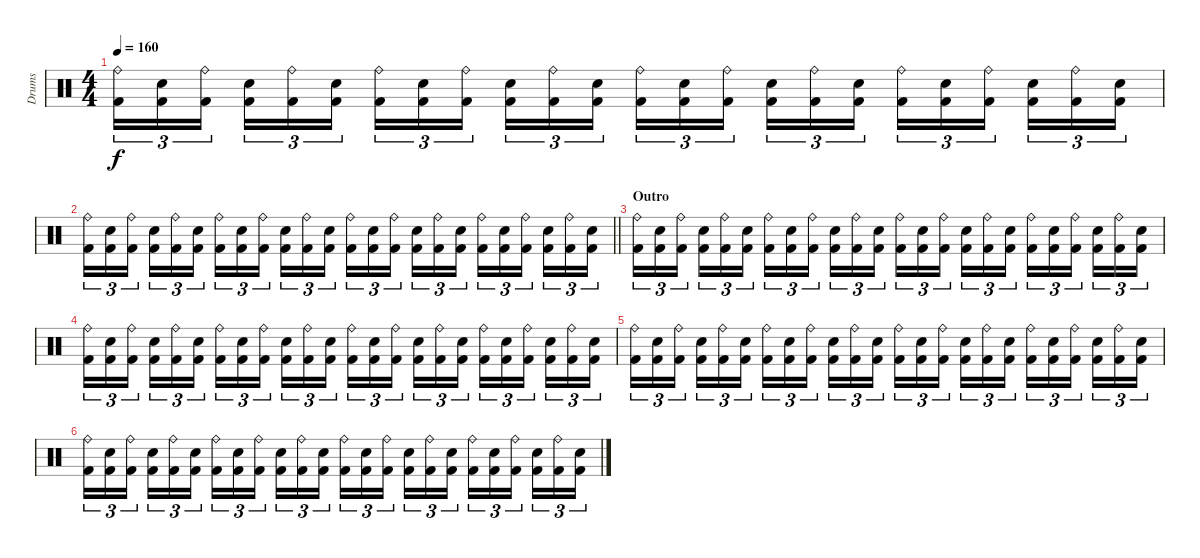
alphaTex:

\track ("Drums" "Drums") {instrument percussion}
\staff {score}
\articulation defaults
\ts (4 4)
\tempo 160
\clef neutral
\ks c
("Ride (bell)" "Kick (hit) 2").16{tu (3 2) dy f} ("Electric Snare (hit)" "Kick (hit) 2").16{tu (3 2)} ("Ride (bell)" "Kick (hit) 2").16{tu (3 2) beam splitsecondary} ("Electric Snare (hit)" "Kick (hit) 2").16{tu (3 2)} ("Ride (bell)" "Kick (hit) 2").16{tu (3 2)} ("Electric Snare (hit)" "Kick (hit) 2").16{tu (3 2)} ("Ride (bell)" "Kick (hit) 2").16{tu (3 2)} ("Electric Snare (hit)" "Kick (hit) 2").16{tu (3 2)} ("Ride (bell)" "Kick (hit) 2").16{tu (3 2) beam splitsecondary} ("Electric Snare (hit)" "Kick (hit) 2").16{tu (3 2)} ("Ride (bell)" "Kick (hit) 2").16{tu (3 2)} ("Electric Snare (hit)" "Kick (hit) 2").16{tu (3 2)} ("Ride (bell)" "Kick (hit) 2").16{tu (3 2)} ("Electric Snare (hit)" "Kick (hit) 2").16{tu (3 2)} ("Ride (bell)" "Kick (hit) 2").16{tu (3 2) beam splitsecondary} ("Electric Snare (hit)" "Kick (hit) 2").16{tu (3 2)} ("Ride (bell)" "Kick (hit) 2").16{tu (3 2)} ("Electric Snare (hit)" "Kick (hit) 2").16{tu (3 2)} ("Ride (bell)" "Kick (hit) 2").16{tu (3 2)} ("Electric Snare (hit)" "Kick (hit) 2").16{tu (3 2)} ("Ride (bell)" "Kick (hit) 2").16{tu (3 2) beam splitsecondary} ("Electric Snare (hit)" "Kick (hit) 2").16{tu (3 2)} ("Ride (bell)" "Kick (hit) 2").16{tu (3 2)} ("Electric Snare (hit)" "Kick (hit) 2").16{tu (3 2)} |
\barLineRight lightlight
("Ride (bell)" "Kick (hit) 2").16{tu (3 2)} ("Electric Snare (hit)" "Kick (hit) 2").16{tu (3 2)} ("Ride (bell)" "Kick (hit) 2").16{tu (3 2) beam splitsecondary} ("Electric Snare (hit)" "Kick (hit) 2").16{tu (3 2)} ("Ride (bell)" "Kick (hit) 2").16{tu (3 2)} ("Electric Snare (hit)" "Kick (hit) 2").16{tu (3 2)} ("Ride (bell)" "Kick (hit) 2").16{tu (3 2)} ("Electric Snare (hit)" "Kick (hit) 2").16{tu (3 2)} ("Ride (bell)" "Kick (hit) 2").16{tu (3 2) beam splitsecondary} ("Electric Snare (hit)" "Kick (hit) 2").16{tu (3 2)} ("Ride (bell)" "Kick (hit) 2").16{tu (3 2)} ("Electric Snare (hit)" "Kick (hit) 2").16{tu (3 2)} ("Ride (bell)" "Kick (hit) 2").16{tu (3 2)} ("Electric Snare (hit)" "Kick (hit) 2").16{tu (3 2)} ("Ride (bell)" "Kick (hit) 2").16{tu (3 2) beam splitsecondary} ("Electric Snare (hit)" "Kick (hit) 2").16{tu (3 2)} ("Ride (bell)" "Kick (hit) 2").16{tu (3 2)} ("Electric Snare (hit)" "Kick (hit) 2").16{tu (3 2)} ("Ride (bell)" "Kick (hit) 2").16{tu (3 2)} ("Electric Snare (hit)" "Kick (hit) 2").16{tu (3 2)} ("Ride (bell)" "Kick (hit) 2").16{tu (3 2) beam splitsecondary} ("Electric Snare (hit)" "Kick (hit) 2").16{tu (3 2)} ("Ride (bell)" "Kick (hit) 2").16{tu (3 2)} ("Electric Snare (hit)" "Kick (hit) 2").16{tu (3 2)} |
\section ("" "Outro")
("Ride (bell)" "Kick (hit) 2").16{tu (3 2)} ("Electric Snare (hit)" "Kick (hit) 2").16{tu (3 2)} ("Ride (bell)" "Kick (hit) 2").16{tu (3 2) beam splitsecondary} ("Electric Snare (hit)" "Kick (hit) 2").16{tu (3 2)} ("Ride (bell)" "Kick (hit) 2").16{tu (3 2)} ("Electric Snare (hit)" "Kick (hit) 2").16{tu (3 2)} ("Ride (bell)" "Kick (hit) 2").16{tu (3 2)} ("Electric Snare (hit)" "Kick (hit) 2").16{tu (3 2)} ("Ride (bell)" "Kick (hit) 2").16{tu (3 2) beam splitsecondary} ("Electric Snare (hit)" "Kick (hit) 2").16{tu (3 2)} ("Ride (bell)" "Kick (hit) 2").16{tu (3 2)} ("Electric Snare (hit)" "Kick (hit) 2").16{tu (3 2)} ("Ride (bell)" "Kick (hit) 2").16{tu (3 2)} ("Electric Snare (hit)" "Kick (hit) 2").16{tu (3 2)} ("Ride (bell)" "Kick (hit) 2").16{tu (3 2) beam splitsecondary} ("Electric Snare (hit)" "Kick (hit) 2").16{tu (3 2)} ("Ride (bell)" "Kick (hit) 2").16{tu (3 2)} ("Electric Snare (hit)" "Kick (hit) 2").16{tu (3 2)} ("Ride (bell)" "Kick (hit) 2").16{tu (3 2)} ("Electric Snare (hit)" "Kick (hit) 2").16{tu (3 2)} ("Ride (bell)" "Kick (hit) 2").16{tu (3 2) beam splitsecondary} ("Electric Snare (hit)" "Kick (hit) 2").16{tu (3 2)} ("Ride (bell)" "Kick (hit) 2").16{tu (3 2)} ("Electric Snare (hit)" "Kick (hit) 2").16{tu (3 2)} |
("Ride (bell)" "Kick (hit) 2").16{tu (3 2)} ("Electric Snare (hit)" "Kick (hit) 2").16{tu (3 2)} ("Ride (bell)" "Kick (hit) 2").16{tu (3 2) beam splitsecondary} ("Electric Snare (hit)" "Kick (hit) 2").16{tu (3 2)} ("Ride (bell)" "Kick (hit) 2").16{tu (3 2)} ("Electric Snare (hit)" "Kick (hit) 2").16{tu (3 2)} ("Ride (bell)" "Kick (hit) 2").16{tu (3 2)} ("Electric Snare (hit)" "Kick (hit) 2").16{tu (3 2)} ("Ride (bell)" "Kick (hit) 2").16{tu (3 2) beam splitsecondary} ("Electric Snare (hit)" "Kick (hit) 2").16{tu (3 2)} ("Ride (bell)" "Kick (hit) 2").16{tu (3 2)} ("Electric Snare (hit)" "Kick (hit) 2").16{tu (3 2)} ("Ride (bell)" "Kick (hit) 2").16{tu (3 2)} ("Electric Snare (hit)" "Kick (hit) 2").16{tu (3 2)} ("Ride (bell)" "Kick (hit) 2").16{tu (3 2) beam splitsecondary} ("Electric Snare (hit)" "Kick (hit) 2").16{tu (3 2)} ("Ride (bell)" "Kick (hit) 2").16{tu (3 2)} ("Electric Snare (hit)" "Kick (hit) 2").16{tu (3 2)} ("Ride (bell)" "Kick (hit) 2").16{tu (3 2)} ("Electric Snare (hit)" "Kick (hit) 2").16{tu (3 2)} ("Ride (bell)" "Kick (hit) 2").16{tu (3 2) beam splitsecondary} ("Electric Snare (hit)" "Kick (hit) 2").16{tu (3 2)} ("Ride (bell)" "Kick (hit) 2").16{tu (3 2)} ("Electric Snare (hit)" "Kick (hit) 2").16{tu (3 2)} |
("Ride (bell)" "Kick (hit) 2").16{tu (3 2)} ("Electric Snare (hit)" "Kick (hit) 2").16{tu (3 2)} ("Ride (bell)" "Kick (hit) 2").16{tu (3 2) beam splitsecondary} ("Electric Snare (hit)" "Kick (hit) 2").16{tu (3 2)} ("Ride (bell)" "Kick (hit) 2").16{tu (3 2)} ("Electric Snare (hit)" "Kick (hit) 2").16{tu (3 2)} ("Ride (bell)" "Kick (hit) 2").16{tu (3 2)} ("Electric Snare (hit)" "Kick (hit) 2").16{tu (3 2)} ("Ride (bell)" "Kick (hit) 2").16{tu (3 2) beam splitsecondary} ("Electric Snare (hit)" "Kick (hit) 2").16{tu (3 2)} ("Ride (bell)" "Kick (hit) 2").16{tu (3 2)} ("Electric Snare (hit)" "Kick (hit) 2").16{tu (3 2)} ("Ride (bell)" "Kick (hit) 2").16{tu (3 2)} ("Electric Snare (hit)" "Kick (hit) 2").16{tu (3 2)} ("Ride (bell)" "Kick (hit) 2").16{tu (3 2) beam splitsecondary} ("Electric Snare (hit)" "Kick (hit) 2").16{tu (3 2)} ("Ride (bell)" "Kick (hit) 2").16{tu (3 2)} ("Electric Snare (hit)" "Kick (hit) 2").16{tu (3 2)} ("Ride (bell)" "Kick (hit) 2").16{tu (3 2)} ("Electric Snare (hit)" "Kick (hit) 2").16{tu (3 2)} ("Ride (bell)" "Kick (hit) 2").16{tu (3 2) beam splitsecondary} ("Electric Snare (hit)" "Kick (hit) 2").16{tu (3 2)} ("Ride (bell)" "Kick (hit) 2").16{tu (3 2)} ("Electric Snare (hit)" "Kick (hit) 2").16{tu (3 2)} |
("Ride (bell)" "Kick (hit) 2").16{tu (3 2)} ("Electric Snare (hit)" "Kick (hit) 2").16{tu (3 2)} ("Ride (bell)" "Kick (hit) 2").16{tu (3 2) beam splitsecondary} ("Electric Snare (hit)" "Kick (hit) 2").16{tu (3 2)} ("Ride (bell)" "Kick (hit) 2").16{tu (3 2)} ("Electric Snare (hit)" "Kick (hit) 2").16{tu (3 2)} ("Ride (bell)" "Kick (hit) 2").16{tu (3 2)} ("Electric Snare (hit)" "Kick (hit) 2").16{tu (3 2)} ("Ride (bell)" "Kick (hit) 2").16{tu (3 2) beam splitsecondary} ("Electric Snare (hit)" "Kick (hit) 2").16{tu (3 2)} ("Ride (bell)" "Kick (hit) 2").16{tu (3 2)} ("Electric Snare (hit)" "Kick (hit) 2").16{tu (3 2)} ("Ride (bell)" "Kick (hit) 2").16{tu (3 2)} ("Electric Snare (hit)" "Kick (hit) 2").16{tu (3 2)} ("Ride (bell)" "Kick (hit) 2").16{tu (3 2) beam splitsecondary} ("Electric Snare (hit)" "Kick (hit) 2").16{tu (3 2)} ("Ride (bell)" "Kick (hit) 2").16{tu (3 2)} ("Electric Snare (hit)" "Kick (hit) 2").16{tu (3 2)} ("Ride (bell)" "Kick (hit) 2").16{tu (3 2)} ("Electric Snare (hit)" "Kick (hit) 2").16{tu (3 2)} ("Ride (bell)" "Kick (hit) 2").16{tu (3 2) beam splitsecondary} ("Electric Snare (hit)" "Kick (hit) 2").16{tu (3 2)} ("Ride (bell)" "Kick (hit) 2").16{tu (3 2)} ("Electric Snare (hit)" "Kick (hit) 2").16{tu (3 2)}
